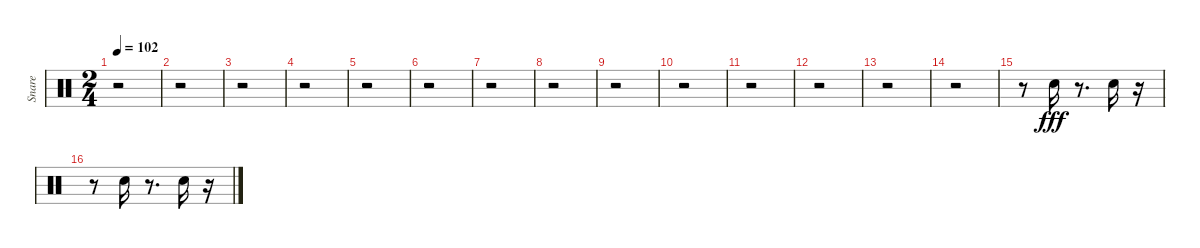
\track ("Snare" "Snare") {instrument percussion}
\staff {score}
\articulation defaults
\ts (2 4)
\tempo 102
\clef neutral
\ks c
r.2{dy fff} |
r.2 |
r.2 |
r.2 |
r.2 |
r.2 |
r.2 |
r.2 |
r.2 |
r.2 |
r.2 |
r.2 |
r.2 |
r.2 |
r.8 "Electric Snare (hit)".16 r.8{d} "Electric Snare (hit)".16 r.16 |
r.8 "Electric Snare (hit)".16 r.8{d} "Electric Snare (hit)".16 r.16
